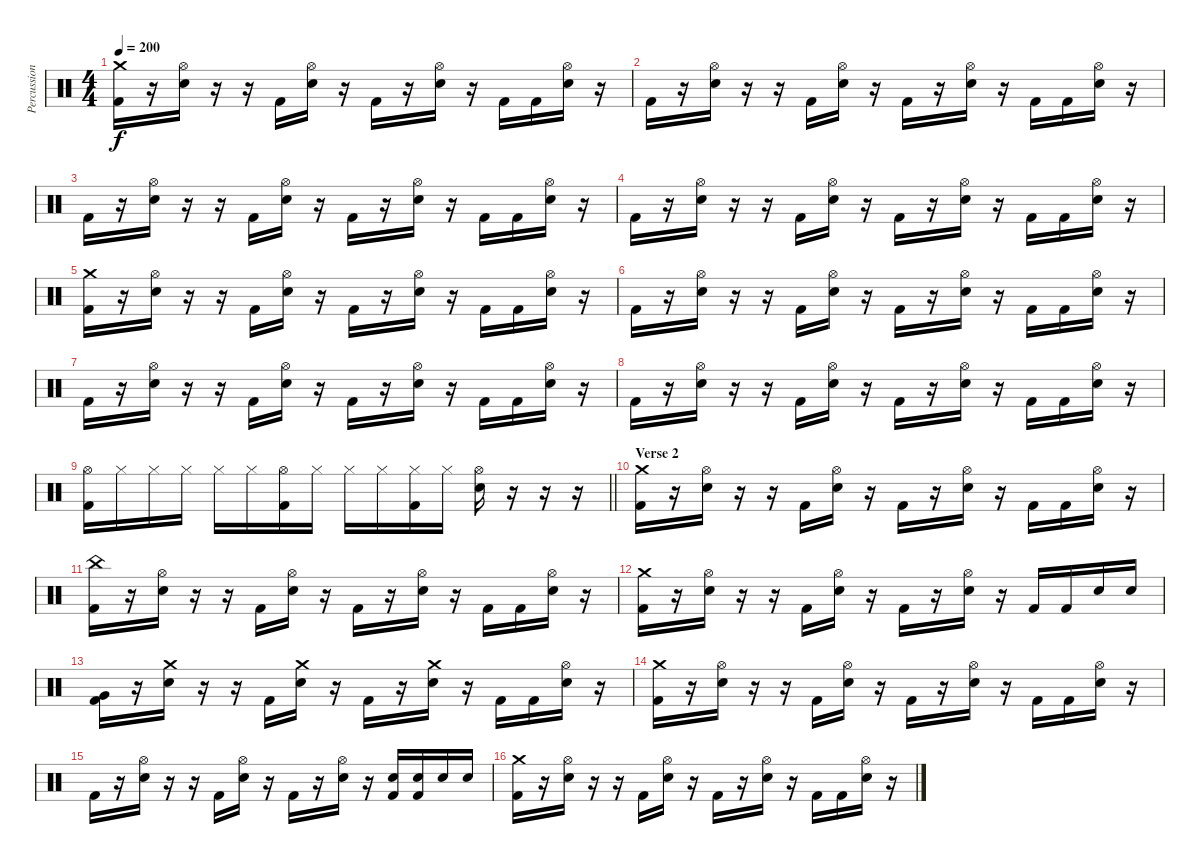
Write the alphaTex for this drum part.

\track ("Percussion" "Percussion") {instrument percussion}
\staff {score}
\articulation defaults
\ts (4 4)
\tempo 200
\clef neutral
\ks c
("Crash medium (hit)" "Kick (hit) 2").16{dy f} r.16 ("Hi-Hat (open)" "Electric Snare (hit)").16 r.16 r.16 "Kick (hit) 2".16 ("Hi-Hat (open)" "Electric Snare (hit)").16 r.16 "Kick (hit) 2".16 r.16 ("Hi-Hat (open)" "Electric Snare (hit)").16 r.16 "Kick (hit) 2".16 "Kick (hit) 2".16 ("Hi-Hat (open)" "Electric Snare (hit)").16 r.16 |
"Kick (hit) 2".16 r.16 ("Hi-Hat (open)" "Electric Snare (hit)").16 r.16 r.16 "Kick (hit) 2".16 ("Hi-Hat (open)" "Electric Snare (hit)").16 r.16 "Kick (hit) 2".16 r.16 ("Hi-Hat (open)" "Electric Snare (hit)").16 r.16 "Kick (hit) 2".16 "Kick (hit) 2".16 ("Hi-Hat (open)" "Electric Snare (hit)").16 r.16 |
"Kick (hit) 2".16 r.16 ("Hi-Hat (open)" "Electric Snare (hit)").16 r.16 r.16 "Kick (hit) 2".16 ("Hi-Hat (open)" "Electric Snare (hit)").16 r.16 "Kick (hit) 2".16 r.16 ("Hi-Hat (open)" "Electric Snare (hit)").16 r.16 "Kick (hit) 2".16 "Kick (hit) 2".16 ("Hi-Hat (open)" "Electric Snare (hit)").16 r.16 |
"Kick (hit) 2".16 r.16 ("Hi-Hat (open)" "Electric Snare (hit)").16 r.16 r.16 "Kick (hit) 2".16 ("Hi-Hat (open)" "Electric Snare (hit)").16 r.16 "Kick (hit) 2".16 r.16 ("Hi-Hat (open)" "Electric Snare (hit)").16 r.16 "Kick (hit) 2".16 "Kick (hit) 2".16 ("Hi-Hat (open)" "Electric Snare (hit)").16 r.16 |
("Crash medium (hit)" "Kick (hit) 2").16 r.16 ("Hi-Hat (open)" "Electric Snare (hit)").16 r.16 r.16 "Kick (hit) 2".16 ("Hi-Hat (open)" "Electric Snare (hit)").16 r.16 "Kick (hit) 2".16 r.16 ("Hi-Hat (open)" "Electric Snare (hit)").16 r.16 "Kick (hit) 2".16 "Kick (hit) 2".16 ("Hi-Hat (open)" "Electric Snare (hit)").16 r.16 |
"Kick (hit) 2".16 r.16 ("Hi-Hat (open)" "Electric Snare (hit)").16 r.16 r.16 "Kick (hit) 2".16 ("Hi-Hat (open)" "Electric Snare (hit)").16 r.16 "Kick (hit) 2".16 r.16 ("Hi-Hat (open)" "Electric Snare (hit)").16 r.16 "Kick (hit) 2".16 "Kick (hit) 2".16 ("Hi-Hat (open)" "Electric Snare (hit)").16 r.16 |
"Kick (hit) 2".16 r.16 ("Hi-Hat (open)" "Electric Snare (hit)").16 r.16 r.16 "Kick (hit) 2".16 ("Hi-Hat (open)" "Electric Snare (hit)").16 r.16 "Kick (hit) 2".16 r.16 ("Hi-Hat (open)" "Electric Snare (hit)").16 r.16 "Kick (hit) 2".16 "Kick (hit) 2".16 ("Hi-Hat (open)" "Electric Snare (hit)").16 r.16 |
"Kick (hit) 2".16 r.16 ("Hi-Hat (open)" "Electric Snare (hit)").16 r.16 r.16 "Kick (hit) 2".16 ("Hi-Hat (open)" "Electric Snare (hit)").16 r.16 "Kick (hit) 2".16 r.16 ("Hi-Hat (open)" "Electric Snare (hit)").16 r.16 "Kick (hit) 2".16 "Kick (hit) 2".16 ("Hi-Hat (open)" "Electric Snare (hit)").16 r.16 |
\barLineRight lightlight
("Hi-Hat (open)" "Kick (hit) 2").16 "Hi-Hat (closed)".16 "Hi-Hat (closed)".16 "Hi-Hat (closed)".16 "Hi-Hat (closed)".16 "Hi-Hat (closed)".16 ("Hi-Hat (open)" "Kick (hit) 2").16 "Hi-Hat (closed)".16 "Hi-Hat (closed)".16 "Hi-Hat (closed)".16 ("Hi-Hat (closed)" "Kick (hit) 2").16 "Hi-Hat (closed)".16 ("Hi-Hat (open)" "Electric Snare (hit)").16 r.16 r.16 r.16 |
\section ("" "Verse 2")
("Kick (hit) 2" "Crash medium (hit)").16 r.16 ("Hi-Hat (open)" "Electric Snare (hit)").16 r.16 r.16 "Kick (hit) 2".16 ("Hi-Hat (open)" "Electric Snare (hit)").16 r.16 "Kick (hit) 2".16 r.16 ("Hi-Hat (open)" "Electric Snare (hit)").16 r.16 "Kick (hit) 2".16 "Kick (hit) 2".16 ("Hi-Hat (open)" "Electric Snare (hit)").16 r.16 |
("Kick (hit) 2" "China (hit)").16 r.16 ("Hi-Hat (open)" "Electric Snare (hit)").16 r.16 r.16 "Kick (hit) 2".16 ("Hi-Hat (open)" "Electric Snare (hit)").16 r.16 "Kick (hit) 2".16 r.16 ("Hi-Hat (open)" "Electric Snare (hit)").16 r.16 "Kick (hit) 2".16 "Kick (hit) 2".16 ("Hi-Hat (open)" "Electric Snare (hit)").16 r.16 |
("Kick (hit) 2" "Crash medium (hit)").16 r.16 ("Hi-Hat (open)" "Electric Snare (hit)").16 r.16 r.16 "Kick (hit) 2".16 ("Hi-Hat (open)" "Electric Snare (hit)").16 r.16 "Kick (hit) 2".16 r.16 ("Hi-Hat (open)" "Electric Snare (hit)").16 r.16 "Kick (hit) 2".16 "Kick (hit) 2".16 "Electric Snare (hit)".16 "Electric Snare (hit)".16 |
("Kick (hit) 2" "Very Low Tom (hit)").16 r.16 ("Crash medium (hit)" "Electric Snare (hit)").16 r.16 r.16 "Kick (hit) 2".16 ("Crash medium (hit)" "Electric Snare (hit)").16 r.16 "Kick (hit) 2".16 r.16 ("Crash medium (hit)" "Electric Snare (hit)").16 r.16 "Kick (hit) 2".16 "Kick (hit) 2".16 ("Hi-Hat (open)" "Electric Snare (hit)").16 r.16 |
("Crash medium (hit)" "Kick (hit) 2").16 r.16 ("Hi-Hat (open)" "Electric Snare (hit)").16 r.16 r.16 "Kick (hit) 2".16 ("Hi-Hat (open)" "Electric Snare (hit)").16 r.16 "Kick (hit) 2".16 r.16 ("Hi-Hat (open)" "Electric Snare (hit)").16 r.16 "Kick (hit) 2".16 "Kick (hit) 2".16 ("Hi-Hat (open)" "Electric Snare (hit)").16 r.16 |
"Kick (hit) 2".16 r.16 ("Hi-Hat (open)" "Electric Snare (hit)").16 r.16 r.16 "Kick (hit) 2".16 ("Hi-Hat (open)" "Electric Snare (hit)").16 r.16 "Kick (hit) 2".16 r.16 ("Hi-Hat (open)" "Electric Snare (hit)").16 r.16 ("Electric Snare (hit)" "Kick (hit) 2").16 ("Electric Snare (hit)" "Kick (hit) 2").16 "Electric Snare (hit)".16 "Electric Snare (hit)".16 |
("Crash medium (hit)" "Kick (hit) 2").16 r.16 ("Hi-Hat (open)" "Electric Snare (hit)").16 r.16 r.16 "Kick (hit) 2".16 ("Hi-Hat (open)" "Electric Snare (hit)").16 r.16 "Kick (hit) 2".16 r.16 ("Hi-Hat (open)" "Electric Snare (hit)").16 r.16 "Kick (hit) 2".16 "Kick (hit) 2".16 ("Hi-Hat (open)" "Electric Snare (hit)").16 r.16
